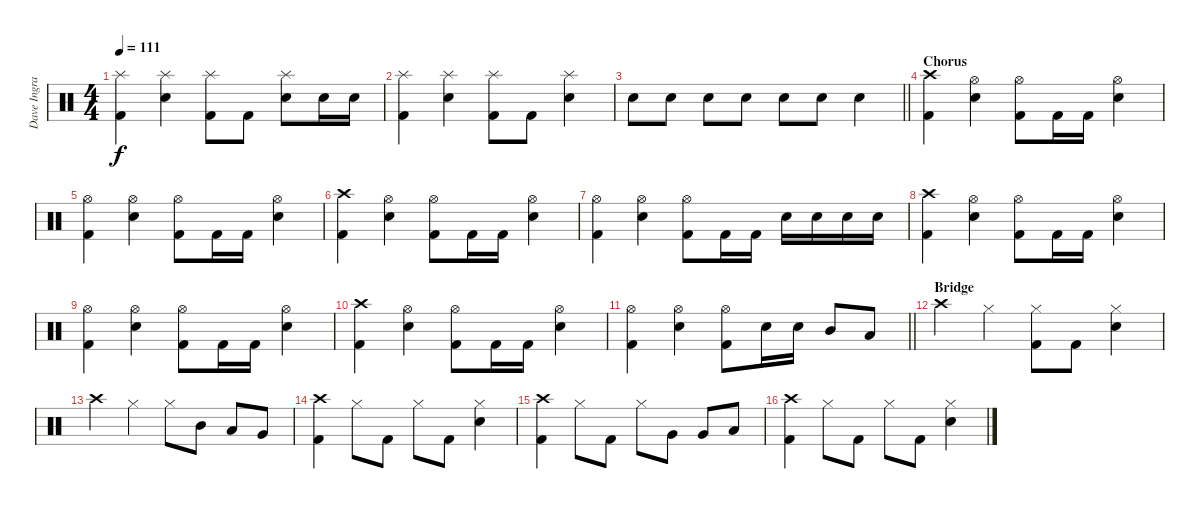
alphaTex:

\track ("Dave Ingraham" "Dave Ingra") {instrument percussion}
\staff {score}
\articulation defaults
\ts (4 4)
\tempo 111
\clef neutral
\ks c
("Splash (hit)" "Kick (hit) 2").4{dy f} ("Splash (hit)" "Electric Snare (hit)").4 ("Splash (hit)" "Kick (hit) 2").8 "Kick (hit) 2".8 ("Splash (hit)" "Electric Snare (hit)").8 "Electric Snare (hit)".16 "Electric Snare (hit)".16 |
("Splash (hit)" "Kick (hit) 2").4 ("Splash (hit)" "Electric Snare (hit)").4 ("Splash (hit)" "Kick (hit) 2").8 "Kick (hit) 2".8 ("Splash (hit)" "Electric Snare (hit)").4 |
\barLineRight lightlight "Electric Snare (hit)".8 "Electric Snare (hit)".8 "Electric Snare (hit)".8 "Electric Snare (hit)".8 "Electric Snare (hit)".8 "Electric Snare (hit)".8 "Electric Snare (hit)".4
|
\section ("" "Chorus")
("Crash high (hit)" "Kick (hit) 2").4 ("Hi-Hat (open)" "Electric Snare (hit)").4 ("Hi-Hat (open)" "Kick (hit) 2").8 "Kick (hit) 2".16 "Kick (hit) 2".16 ("Hi-Hat (open)" "Electric Snare (hit)").4 |
("Hi-Hat (open)" "Kick (hit) 2").4 ("Hi-Hat (open)" "Electric Snare (hit)").4 ("Hi-Hat (open)" "Kick (hit) 2").8 "Kick (hit) 2".16 "Kick (hit) 2".16 ("Hi-Hat (open)" "Electric Snare (hit)").4 |
("Crash high (hit)" "Kick (hit) 2").4 ("Hi-Hat (open)" "Electric Snare (hit)").4 ("Hi-Hat (open)" "Kick (hit) 2").8 "Kick (hit) 2".16 "Kick (hit) 2".16 ("Hi-Hat (open)" "Electric Snare (hit)").4 |
("Hi-Hat (open)" "Kick (hit) 2").4 ("Hi-Hat (open)" "Electric Snare (hit)").4 ("Hi-Hat (open)" "Kick (hit) 2").8 "Kick (hit) 2".16 "Kick (hit) 2".16 "Electric Snare (hit)".16 "Electric Snare (hit)".16 "Electric Snare (hit)".16 "Electric Snare (hit)".16 |
("Crash high (hit)" "Kick (hit) 2").4 ("Hi-Hat (open)" "Electric Snare (hit)").4 ("Hi-Hat (open)" "Kick (hit) 2").8 "Kick (hit) 2".16 "Kick (hit) 2".16 ("Hi-Hat (open)" "Electric Snare (hit)").4 |
("Hi-Hat (open)" "Kick (hit) 2").4 ("Hi-Hat (open)" "Electric Snare (hit)").4 ("Hi-Hat (open)" "Kick (hit) 2").8 "Kick (hit) 2".16 "Kick (hit) 2".16 ("Hi-Hat (open)" "Electric Snare (hit)").4 |
("Crash high (hit)" "Kick (hit) 2").4 ("Hi-Hat (open)" "Electric Snare (hit)").4 ("Hi-Hat (open)" "Kick (hit) 2").8 "Kick (hit) 2".16 "Kick (hit) 2".16 ("Hi-Hat (open)" "Electric Snare (hit)").4 |
\barLineRight lightlight
("Hi-Hat (open)" "Kick (hit) 2").4 ("Hi-Hat (open)" "Electric Snare (hit)").4 ("Hi-Hat (open)" "Kick (hit) 2").8 "Electric Snare (hit)".16 "Electric Snare (hit)".16 "Mid Tom (hit)".8 "Low Tom (hit)".8 |
\section ("" "Bridge")
"Crash high (hit)".4 "Hi-Hat (closed)".4 ("Hi-Hat (closed)" "Kick (hit) 2").8 "Kick (hit) 2".8 ("Hi-Hat (closed)" "Electric Snare (hit)").4 |
"Crash high (hit)".4 "Hi-Hat (closed)".4 "Hi-Hat (closed)".8 "Mid Tom (hit)".8 "Low Tom (hit)".8 "Very Low Tom (hit)".8 |
("Crash high (hit)" "Kick (hit) 2").4 "Hi-Hat (closed)".8 "Kick (hit) 2".8 "Hi-Hat (closed)".8 "Kick (hit) 2".8 ("Hi-Hat (closed)" "Electric Snare (hit)").4 |
("Crash high (hit)" "Kick (hit) 2").4 "Hi-Hat (closed)".8 "Kick (hit) 2".8 "Hi-Hat (closed)".8 "Very Low Tom (hit)".8 "Very Low Tom (hit)".8 "Low Floor Tom (hit)".8 |
("Crash high (hit)" "Kick (hit) 2").4 "Hi-Hat (closed)".8 "Kick (hit) 2".8 "Hi-Hat (closed)".8 "Kick (hit) 2".8 ("Hi-Hat (closed)" "Electric Snare (hit)").4
